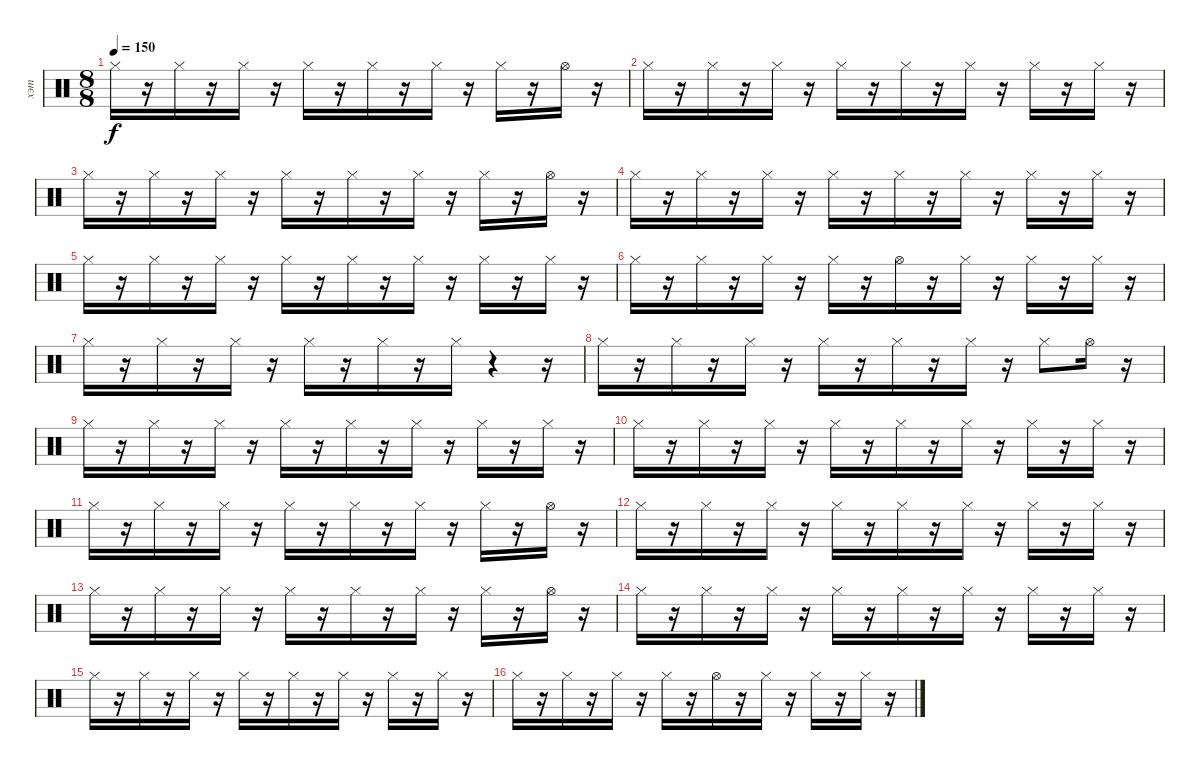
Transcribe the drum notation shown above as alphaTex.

\track ("хэт" "хэт") {instrument percussion}
\staff {score}
\articulation defaults
\ts (8 8)
\tempo 150
\clef neutral
\ks c "Hi-Hat (closed)".16{dy f}
r.16 "Hi-Hat (closed)".16 r.16 "Hi-Hat (closed)".16 r.16 "Hi-Hat (closed)".16 r.16 "Hi-Hat (closed)".16 r.16 "Hi-Hat (closed)".16 r.16 "Hi-Hat (closed)".16 r.16 "Hi-Hat (open)".16 r.16 |
"Hi-Hat (closed)".16 r.16 "Hi-Hat (closed)".16 r.16 "Hi-Hat (closed)".16 r.16 "Hi-Hat (closed)".16 r.16 "Hi-Hat (closed)".16 r.16 "Hi-Hat (closed)".16 r.16 "Hi-Hat (closed)".16 r.16 "Hi-Hat (closed)".16 r.16 |
"Hi-Hat (closed)".16 r.16 "Hi-Hat (closed)".16 r.16 "Hi-Hat (closed)".16 r.16 "Hi-Hat (closed)".16 r.16 "Hi-Hat (closed)".16 r.16 "Hi-Hat (closed)".16 r.16 "Hi-Hat (closed)".16 r.16 "Hi-Hat (open)".16 r.16 |
"Hi-Hat (closed)".16 r.16 "Hi-Hat (closed)".16 r.16 "Hi-Hat (closed)".16 r.16 "Hi-Hat (closed)".16 r.16 "Hi-Hat (closed)".16 r.16 "Hi-Hat (closed)".16 r.16 "Hi-Hat (closed)".16 r.16 "Hi-Hat (closed)".16 r.16 |
"Hi-Hat (closed)".16 r.16 "Hi-Hat (closed)".16 r.16 "Hi-Hat (closed)".16 r.16 "Hi-Hat (closed)".16 r.16 "Hi-Hat (closed)".16 r.16 "Hi-Hat (closed)".16 r.16 "Hi-Hat (closed)".16 r.16 "Hi-Hat (closed)".16 r.16 |
"Hi-Hat (closed)".16 r.16 "Hi-Hat (closed)".16 r.16 "Hi-Hat (closed)".16 r.16 "Hi-Hat (closed)".16 r.16 "Hi-Hat (open)".16 r.16 "Hi-Hat (closed)".16 r.16 "Hi-Hat (closed)".16 r.16 "Hi-Hat (closed)".16 r.16 |
"Hi-Hat (closed)".16 r.16 "Hi-Hat (closed)".16 r.16 "Hi-Hat (closed)".16 r.16 "Hi-Hat (closed)".16 r.16 "Hi-Hat (closed)".16 r.16 "Hi-Hat (closed)".16 r.4 r.16 |
"Hi-Hat (closed)".16 r.16 "Hi-Hat (closed)".16 r.16 "Hi-Hat (closed)".16 r.16 "Hi-Hat (closed)".16 r.16 "Hi-Hat (closed)".16 r.16 "Hi-Hat (closed)".16 r.16 "Hi-Hat (closed)".8 "Hi-Hat (open)".16 r.16 |
"Hi-Hat (closed)".16 r.16 "Hi-Hat (closed)".16 r.16 "Hi-Hat (closed)".16 r.16 "Hi-Hat (closed)".16 r.16 "Hi-Hat (closed)".16 r.16 "Hi-Hat (closed)".16 r.16 "Hi-Hat (closed)".16 r.16 "Hi-Hat (closed)".16 r.16 |
"Hi-Hat (closed)".16 r.16 "Hi-Hat (closed)".16 r.16 "Hi-Hat (closed)".16 r.16 "Hi-Hat (closed)".16 r.16 "Hi-Hat (closed)".16 r.16 "Hi-Hat (closed)".16 r.16 "Hi-Hat (closed)".16 r.16 "Hi-Hat (closed)".16 r.16 |
"Hi-Hat (closed)".16 r.16 "Hi-Hat (closed)".16 r.16 "Hi-Hat (closed)".16 r.16 "Hi-Hat (closed)".16 r.16 "Hi-Hat (closed)".16 r.16 "Hi-Hat (closed)".16 r.16 "Hi-Hat (closed)".16 r.16 "Hi-Hat (open)".16 r.16 |
"Hi-Hat (closed)".16 r.16 "Hi-Hat (closed)".16 r.16 "Hi-Hat (closed)".16 r.16 "Hi-Hat (closed)".16 r.16 "Hi-Hat (closed)".16 r.16 "Hi-Hat (closed)".16 r.16 "Hi-Hat (closed)".16 r.16 "Hi-Hat (closed)".16 r.16 |
"Hi-Hat (closed)".16 r.16 "Hi-Hat (closed)".16 r.16 "Hi-Hat (closed)".16 r.16 "Hi-Hat (closed)".16 r.16 "Hi-Hat (closed)".16 r.16 "Hi-Hat (closed)".16 r.16 "Hi-Hat (closed)".16 r.16 "Hi-Hat (open)".16 r.16 |
"Hi-Hat (closed)".16 r.16 "Hi-Hat (closed)".16 r.16 "Hi-Hat (closed)".16 r.16 "Hi-Hat (closed)".16 r.16 "Hi-Hat (closed)".16 r.16 "Hi-Hat (closed)".16 r.16 "Hi-Hat (closed)".16 r.16 "Hi-Hat (closed)".16 r.16 |
"Hi-Hat (closed)".16 r.16 "Hi-Hat (closed)".16 r.16 "Hi-Hat (closed)".16 r.16 "Hi-Hat (closed)".16 r.16 "Hi-Hat (closed)".16 r.16 "Hi-Hat (closed)".16 r.16 "Hi-Hat (closed)".16 r.16 "Hi-Hat (closed)".16 r.16 |
"Hi-Hat (closed)".16 r.16 "Hi-Hat (closed)".16 r.16 "Hi-Hat (closed)".16 r.16 "Hi-Hat (closed)".16 r.16 "Hi-Hat (open)".16 r.16 "Hi-Hat (closed)".16 r.16 "Hi-Hat (closed)".16 r.16 "Hi-Hat (closed)".16 r.16
